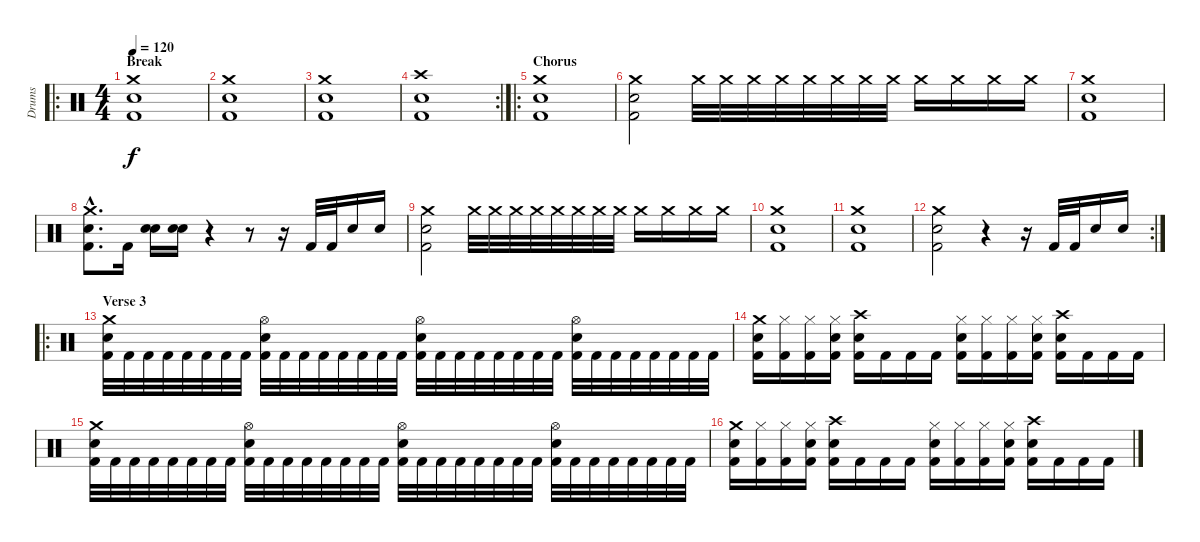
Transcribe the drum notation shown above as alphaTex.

\track ("Drums" "Drums") {instrument percussion}
\staff {score}
\articulation defaults
\ro
\ts (4 4)
\section ("" "Break")
\tempo 120
\clef neutral
\ks c
("Crash medium (hit)" "Snare (hit) 2" "Kick (hit) 2").1{dy f} |
("Crash medium (hit)" "Snare (hit) 2" "Kick (hit) 2").1 |
("Crash medium (hit)" "Snare (hit) 2" "Kick (hit) 2").1 |
\rc 2
("Crash high (hit)" "Snare (hit) 2" "Kick (hit) 2").1 |
\ro
\section ("" "Chorus")
("Crash medium (hit)" "Snare (hit) 2" "Kick (hit) 2").1 |
("Crash medium (hit)" "Snare (hit) 2" "Kick (hit) 2").2 "Crash medium (hit)".32 "Crash medium (hit)".32 "Crash medium (hit)".32 "Crash medium (hit)".32 "Crash medium (hit)".32 "Crash medium (hit)".32 "Crash medium (hit)".32 "Crash medium (hit)".32 "Crash medium (hit)".16 "Crash medium (hit)".16 "Crash medium (hit)".16 "Crash medium (hit)".16 |
("Crash medium (hit)" "Snare (hit) 2" "Kick (hit) 2").1 |
("Crash medium (hit)"{hac} "Snare (hit) 2"{hac} "Kick (hit) 2"{hac}).8{d} "Kick (hit) 2".16 ("Snare (hit) 2" "Snare (hit) 2").16 ("Snare (hit) 2" "Snare (hit) 2").16 r.4 r.8 r.16 "Kick (hit) 2".32 "Kick (hit) 2".32 "Snare (hit) 2".16 "Snare (hit) 2".16 |
("Crash medium (hit)" "Snare (hit) 2" "Kick (hit) 2").2 "Crash medium (hit)".32 "Crash medium (hit)".32 "Crash medium (hit)".32 "Crash medium (hit)".32 "Crash medium (hit)".32 "Crash medium (hit)".32 "Crash medium (hit)".32 "Crash medium (hit)".32 "Crash medium (hit)".16 "Crash medium (hit)".16 "Crash medium (hit)".16 "Crash medium (hit)".16 |
("Crash medium (hit)" "Snare (hit) 2" "Kick (hit) 2").1 |
("Crash medium (hit)" "Snare (hit) 2" "Kick (hit) 2").1 |
\rc 2
("Crash medium (hit)" "Snare (hit) 2" "Kick (hit) 2").2 r.4 r.16 "Kick (hit) 2".32 "Kick (hit) 2".32 "Snare (hit) 2".16 "Snare (hit) 2".16 |
\ro
\section ("" "Verse 3")
("Crash medium (hit)" "Snare (hit) 2" "Kick (hit) 2").32 "Kick (hit) 2".32 "Kick (hit) 2".32 "Kick (hit) 2".32 "Kick (hit) 2".32 "Kick (hit) 2".32 "Kick (hit) 2".32 "Kick (hit) 2".32 ("Hi-Hat (open)" "Snare (hit) 2" "Kick (hit) 2").32 "Kick (hit) 2".32 "Kick (hit) 2".32 "Kick (hit) 2".32 "Kick (hit) 2".32 "Kick (hit) 2".32 "Kick (hit) 2".32 "Kick (hit) 2".32 ("Hi-Hat (open)" "Snare (hit) 2" "Kick (hit) 2").32 "Kick (hit) 2".32 "Kick (hit) 2".32 "Kick (hit) 2".32 "Kick (hit) 2".32 "Kick (hit) 2".32 "Kick (hit) 2".32 "Kick (hit) 2".32 ("Hi-Hat (open)" "Snare (hit) 2" "Kick (hit) 2").32 "Kick (hit) 2".32 "Kick (hit) 2".32 "Kick (hit) 2".32 "Kick (hit) 2".32 "Kick (hit) 2".32 "Kick (hit) 2".32 "Kick (hit) 2".32 |
("Crash medium (hit)" "Snare (hit) 2" "Kick (hit) 2").16 ("Hi-Hat (closed)" "Kick (hit) 2").16 ("Hi-Hat (closed)" "Kick (hit) 2").16 ("Hi-Hat (closed)" "Snare (hit) 2" "Kick (hit) 2").16 ("Crash high (hit)" "Snare (hit) 2" "Kick (hit) 2").16 "Kick (hit) 2".16 "Kick (hit) 2".16 "Kick (hit) 2".16 ("Hi-Hat (closed)" "Snare (hit) 2" "Kick (hit) 2").16 ("Hi-Hat (closed)" "Kick (hit) 2").16 ("Hi-Hat (closed)" "Kick (hit) 2").16 ("Hi-Hat (closed)" "Snare (hit) 2" "Kick (hit) 2").16 ("Crash high (hit)" "Snare (hit) 2" "Kick (hit) 2").16 "Kick (hit) 2".16 "Kick (hit) 2".16 "Kick (hit) 2".16 |
("Crash medium (hit)" "Snare (hit) 2" "Kick (hit) 2").32 "Kick (hit) 2".32 "Kick (hit) 2".32 "Kick (hit) 2".32 "Kick (hit) 2".32 "Kick (hit) 2".32 "Kick (hit) 2".32 "Kick (hit) 2".32 ("Hi-Hat (open)" "Snare (hit) 2" "Kick (hit) 2").32 "Kick (hit) 2".32 "Kick (hit) 2".32 "Kick (hit) 2".32 "Kick (hit) 2".32 "Kick (hit) 2".32 "Kick (hit) 2".32 "Kick (hit) 2".32 ("Hi-Hat (open)" "Snare (hit) 2" "Kick (hit) 2").32 "Kick (hit) 2".32 "Kick (hit) 2".32 "Kick (hit) 2".32 "Kick (hit) 2".32 "Kick (hit) 2".32 "Kick (hit) 2".32 "Kick (hit) 2".32 ("Hi-Hat (open)" "Snare (hit) 2" "Kick (hit) 2").32 "Kick (hit) 2".32 "Kick (hit) 2".32 "Kick (hit) 2".32 "Kick (hit) 2".32 "Kick (hit) 2".32 "Kick (hit) 2".32 "Kick (hit) 2".32 |
("Crash medium (hit)" "Snare (hit) 2" "Kick (hit) 2").16 ("Hi-Hat (closed)" "Kick (hit) 2").16 ("Hi-Hat (closed)" "Kick (hit) 2").16 ("Hi-Hat (closed)" "Snare (hit) 2" "Kick (hit) 2").16 ("Crash high (hit)" "Snare (hit) 2" "Kick (hit) 2").16 "Kick (hit) 2".16 "Kick (hit) 2".16 "Kick (hit) 2".16 ("Hi-Hat (closed)" "Snare (hit) 2" "Kick (hit) 2").16 ("Hi-Hat (closed)" "Kick (hit) 2").16 ("Hi-Hat (closed)" "Kick (hit) 2").16 ("Hi-Hat (closed)" "Snare (hit) 2" "Kick (hit) 2").16 ("Crash high (hit)" "Snare (hit) 2" "Kick (hit) 2").16 "Kick (hit) 2".16 "Kick (hit) 2".16 "Kick (hit) 2".16
